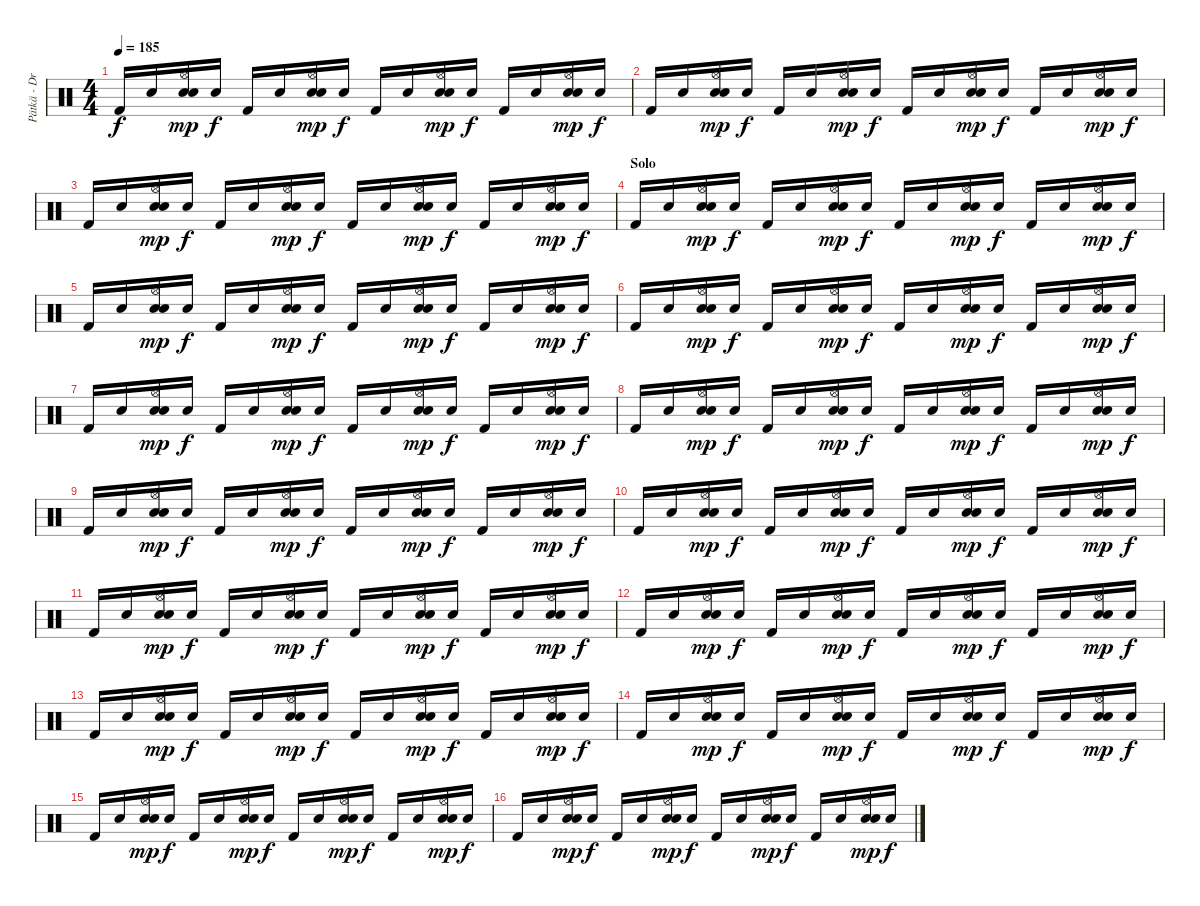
\track ("Pätkä - Drums" "Pätkä - Dr") {instrument percussion}
\staff {score}
\articulation defaults
\ts (4 4)
\tempo 185
\clef neutral
\ks c "Kick (hit) 2".16{dy f} "Snare (hit)".16
("Hi-Hat (open)" "Electric Snare (hit)" "Snare (hit) 2").16{dy mp} "Snare (hit)".16{dy f} "Kick (hit) 2".16 "Snare (hit)".16 ("Hi-Hat (open)" "Electric Snare (hit)" "Snare (hit) 2").16{dy mp} "Snare (hit)".16{dy f} "Kick (hit) 2".16 "Snare (hit)".16 ("Hi-Hat (open)" "Electric Snare (hit)" "Snare (hit) 2").16{dy mp} "Snare (hit)".16{dy f} "Kick (hit) 2".16 "Snare (hit)".16 ("Hi-Hat (open)" "Electric Snare (hit)" "Snare (hit) 2").16{dy mp} "Snare (hit)".16{dy f} |
"Kick (hit) 2".16 "Snare (hit)".16 ("Hi-Hat (open)" "Electric Snare (hit)" "Snare (hit) 2").16{dy mp} "Snare (hit)".16{dy f} "Kick (hit) 2".16 "Snare (hit)".16 ("Hi-Hat (open)" "Electric Snare (hit)" "Snare (hit) 2").16{dy mp} "Snare (hit)".16{dy f} "Kick (hit) 2".16 "Snare (hit)".16 ("Hi-Hat (open)" "Electric Snare (hit)" "Snare (hit) 2").16{dy mp} "Snare (hit)".16{dy f} "Kick (hit) 2".16 "Snare (hit)".16 ("Hi-Hat (open)" "Electric Snare (hit)" "Snare (hit) 2").16{dy mp} "Snare (hit)".16{dy f} |
"Kick (hit) 2".16 "Snare (hit)".16 ("Hi-Hat (open)" "Electric Snare (hit)" "Snare (hit) 2").16{dy mp} "Snare (hit)".16{dy f} "Kick (hit) 2".16 "Snare (hit)".16 ("Hi-Hat (open)" "Electric Snare (hit)" "Snare (hit) 2").16{dy mp} "Snare (hit)".16{dy f} "Kick (hit) 2".16 "Snare (hit)".16 ("Hi-Hat (open)" "Electric Snare (hit)" "Snare (hit) 2").16{dy mp} "Snare (hit)".16{dy f} "Kick (hit) 2".16 "Snare (hit)".16 ("Hi-Hat (open)" "Electric Snare (hit)" "Snare (hit) 2").16{dy mp} "Snare (hit)".16{dy f} |
\section ("" "Solo")
"Kick (hit) 2".16{volume 16 balance 8} "Snare (hit)".16 ("Hi-Hat (open)" "Electric Snare (hit)" "Snare (hit) 2").16{dy mp} "Snare (hit)".16{dy f} "Kick (hit) 2".16 "Snare (hit)".16 ("Hi-Hat (open)" "Electric Snare (hit)" "Snare (hit) 2").16{dy mp} "Snare (hit)".16{dy f} "Kick (hit) 2".16 "Snare (hit)".16 ("Hi-Hat (open)" "Electric Snare (hit)" "Snare (hit) 2").16{dy mp} "Snare (hit)".16{dy f} "Kick (hit) 2".16 "Snare (hit)".16 ("Hi-Hat (open)" "Electric Snare (hit)" "Snare (hit) 2").16{dy mp} "Snare (hit)".16{dy f} |
"Kick (hit) 2".16 "Snare (hit)".16 ("Hi-Hat (open)" "Electric Snare (hit)" "Snare (hit) 2").16{dy mp} "Snare (hit)".16{dy f} "Kick (hit) 2".16 "Snare (hit)".16 ("Hi-Hat (open)" "Electric Snare (hit)" "Snare (hit) 2").16{dy mp} "Snare (hit)".16{dy f} "Kick (hit) 2".16 "Snare (hit)".16 ("Hi-Hat (open)" "Electric Snare (hit)" "Snare (hit) 2").16{dy mp} "Snare (hit)".16{dy f} "Kick (hit) 2".16 "Snare (hit)".16 ("Hi-Hat (open)" "Electric Snare (hit)" "Snare (hit) 2").16{dy mp} "Snare (hit)".16{dy f} |
"Kick (hit) 2".16 "Snare (hit)".16 ("Hi-Hat (open)" "Electric Snare (hit)" "Snare (hit) 2").16{dy mp} "Snare (hit)".16{dy f} "Kick (hit) 2".16 "Snare (hit)".16 ("Hi-Hat (open)" "Electric Snare (hit)" "Snare (hit) 2").16{dy mp} "Snare (hit)".16{dy f} "Kick (hit) 2".16 "Snare (hit)".16 ("Hi-Hat (open)" "Electric Snare (hit)" "Snare (hit) 2").16{dy mp} "Snare (hit)".16{dy f} "Kick (hit) 2".16 "Snare (hit)".16 ("Hi-Hat (open)" "Electric Snare (hit)" "Snare (hit) 2").16{dy mp} "Snare (hit)".16{dy f} |
"Kick (hit) 2".16 "Snare (hit)".16 ("Hi-Hat (open)" "Electric Snare (hit)" "Snare (hit) 2").16{dy mp} "Snare (hit)".16{dy f} "Kick (hit) 2".16 "Snare (hit)".16 ("Hi-Hat (open)" "Electric Snare (hit)" "Snare (hit) 2").16{dy mp} "Snare (hit)".16{dy f} "Kick (hit) 2".16 "Snare (hit)".16 ("Hi-Hat (open)" "Electric Snare (hit)" "Snare (hit) 2").16{dy mp} "Snare (hit)".16{dy f} "Kick (hit) 2".16 "Snare (hit)".16 ("Hi-Hat (open)" "Electric Snare (hit)" "Snare (hit) 2").16{dy mp} "Snare (hit)".16{dy f} |
"Kick (hit) 2".16 "Snare (hit)".16 ("Hi-Hat (open)" "Electric Snare (hit)" "Snare (hit) 2").16{dy mp} "Snare (hit)".16{dy f} "Kick (hit) 2".16 "Snare (hit)".16 ("Hi-Hat (open)" "Electric Snare (hit)" "Snare (hit) 2").16{dy mp} "Snare (hit)".16{dy f} "Kick (hit) 2".16 "Snare (hit)".16 ("Hi-Hat (open)" "Electric Snare (hit)" "Snare (hit) 2").16{dy mp} "Snare (hit)".16{dy f} "Kick (hit) 2".16 "Snare (hit)".16 ("Hi-Hat (open)" "Electric Snare (hit)" "Snare (hit) 2").16{dy mp} "Snare (hit)".16{dy f} |
"Kick (hit) 2".16 "Snare (hit)".16 ("Hi-Hat (open)" "Electric Snare (hit)" "Snare (hit) 2").16{dy mp} "Snare (hit)".16{dy f} "Kick (hit) 2".16 "Snare (hit)".16 ("Hi-Hat (open)" "Electric Snare (hit)" "Snare (hit) 2").16{dy mp} "Snare (hit)".16{dy f} "Kick (hit) 2".16 "Snare (hit)".16 ("Hi-Hat (open)" "Electric Snare (hit)" "Snare (hit) 2").16{dy mp} "Snare (hit)".16{dy f} "Kick (hit) 2".16 "Snare (hit)".16 ("Hi-Hat (open)" "Electric Snare (hit)" "Snare (hit) 2").16{dy mp} "Snare (hit)".16{dy f} |
"Kick (hit) 2".16 "Snare (hit)".16 ("Hi-Hat (open)" "Electric Snare (hit)" "Snare (hit) 2").16{dy mp} "Snare (hit)".16{dy f} "Kick (hit) 2".16 "Snare (hit)".16 ("Hi-Hat (open)" "Electric Snare (hit)" "Snare (hit) 2").16{dy mp} "Snare (hit)".16{dy f} "Kick (hit) 2".16 "Snare (hit)".16 ("Hi-Hat (open)" "Electric Snare (hit)" "Snare (hit) 2").16{dy mp} "Snare (hit)".16{dy f} "Kick (hit) 2".16 "Snare (hit)".16 ("Hi-Hat (open)" "Electric Snare (hit)" "Snare (hit) 2").16{dy mp} "Snare (hit)".16{dy f} |
"Kick (hit) 2".16 "Snare (hit)".16 ("Hi-Hat (open)" "Electric Snare (hit)" "Snare (hit) 2").16{dy mp} "Snare (hit)".16{dy f} "Kick (hit) 2".16 "Snare (hit)".16 ("Hi-Hat (open)" "Electric Snare (hit)" "Snare (hit) 2").16{dy mp} "Snare (hit)".16{dy f} "Kick (hit) 2".16 "Snare (hit)".16 ("Hi-Hat (open)" "Electric Snare (hit)" "Snare (hit) 2").16{dy mp} "Snare (hit)".16{dy f} "Kick (hit) 2".16 "Snare (hit)".16 ("Hi-Hat (open)" "Electric Snare (hit)" "Snare (hit) 2").16{dy mp} "Snare (hit)".16{dy f} |
"Kick (hit) 2".16 "Snare (hit)".16 ("Hi-Hat (open)" "Electric Snare (hit)" "Snare (hit) 2").16{dy mp} "Snare (hit)".16{dy f} "Kick (hit) 2".16 "Snare (hit)".16 ("Hi-Hat (open)" "Electric Snare (hit)" "Snare (hit) 2").16{dy mp} "Snare (hit)".16{dy f} "Kick (hit) 2".16 "Snare (hit)".16 ("Hi-Hat (open)" "Electric Snare (hit)" "Snare (hit) 2").16{dy mp} "Snare (hit)".16{dy f} "Kick (hit) 2".16 "Snare (hit)".16 ("Hi-Hat (open)" "Electric Snare (hit)" "Snare (hit) 2").16{dy mp} "Snare (hit)".16{dy f} |
"Kick (hit) 2".16 "Snare (hit)".16 ("Hi-Hat (open)" "Electric Snare (hit)" "Snare (hit) 2").16{dy mp} "Snare (hit)".16{dy f} "Kick (hit) 2".16 "Snare (hit)".16 ("Hi-Hat (open)" "Electric Snare (hit)" "Snare (hit) 2").16{dy mp} "Snare (hit)".16{dy f} "Kick (hit) 2".16 "Snare (hit)".16 ("Hi-Hat (open)" "Electric Snare (hit)" "Snare (hit) 2").16{dy mp} "Snare (hit)".16{dy f} "Kick (hit) 2".16 "Snare (hit)".16 ("Hi-Hat (open)" "Electric Snare (hit)" "Snare (hit) 2").16{dy mp} "Snare (hit)".16{dy f} |
"Kick (hit) 2".16 "Snare (hit)".16 ("Hi-Hat (open)" "Electric Snare (hit)" "Snare (hit) 2").16{dy mp} "Snare (hit)".16{dy f} "Kick (hit) 2".16 "Snare (hit)".16 ("Hi-Hat (open)" "Electric Snare (hit)" "Snare (hit) 2").16{dy mp} "Snare (hit)".16{dy f} "Kick (hit) 2".16 "Snare (hit)".16 ("Hi-Hat (open)" "Electric Snare (hit)" "Snare (hit) 2").16{dy mp} "Snare (hit)".16{dy f} "Kick (hit) 2".16 "Snare (hit)".16 ("Hi-Hat (open)" "Electric Snare (hit)" "Snare (hit) 2").16{dy mp} "Snare (hit)".16{dy f} |
"Kick (hit) 2".16 "Snare (hit)".16 ("Hi-Hat (open)" "Electric Snare (hit)" "Snare (hit) 2").16{dy mp} "Snare (hit)".16{dy f} "Kick (hit) 2".16 "Snare (hit)".16 ("Hi-Hat (open)" "Electric Snare (hit)" "Snare (hit) 2").16{dy mp} "Snare (hit)".16{dy f} "Kick (hit) 2".16 "Snare (hit)".16 ("Hi-Hat (open)" "Electric Snare (hit)" "Snare (hit) 2").16{dy mp} "Snare (hit)".16{dy f} "Kick (hit) 2".16 "Snare (hit)".16 ("Hi-Hat (open)" "Electric Snare (hit)" "Snare (hit) 2").16{dy mp} "Snare (hit)".16{dy f} |
"Kick (hit) 2".16 "Snare (hit)".16 ("Hi-Hat (open)" "Electric Snare (hit)" "Snare (hit) 2").16{dy mp} "Snare (hit)".16{dy f} "Kick (hit) 2".16 "Snare (hit)".16 ("Hi-Hat (open)" "Electric Snare (hit)" "Snare (hit) 2").16{dy mp} "Snare (hit)".16{dy f} "Kick (hit) 2".16 "Snare (hit)".16 ("Hi-Hat (open)" "Electric Snare (hit)" "Snare (hit) 2").16{dy mp} "Snare (hit)".16{dy f} "Kick (hit) 2".16 "Snare (hit)".16 ("Hi-Hat (open)" "Electric Snare (hit)" "Snare (hit) 2").16{dy mp} "Snare (hit)".16{dy f}
